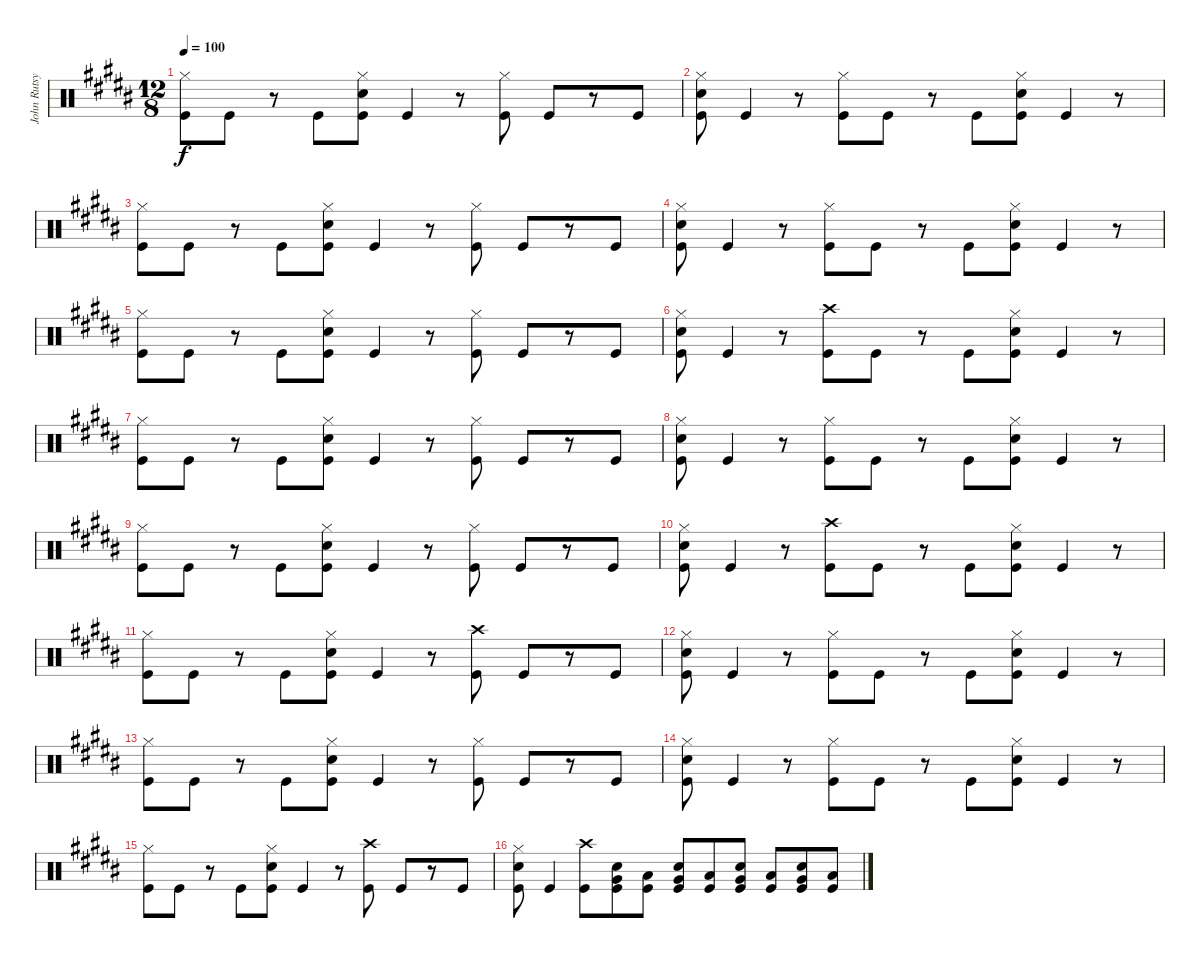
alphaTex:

\track ("John Rutsy Drums" "John Rutsy") {instrument percussion}
\staff {score}
\articulation defaults
\ts (12 8)
\tempo 100
\clef neutral
\ks b
("Hi-Hat (closed)" "Kick (hit)").8{dy f} "Kick (hit)".8 r.8 "Kick (hit)".8 ("Hi-Hat (closed)" "Snare (hit) 2" "Kick (hit)").8 "Kick (hit)".4 r.8 ("Hi-Hat (closed)" "Kick (hit)").8 "Kick (hit)".8 r.8 "Kick (hit)".8 |
("Hi-Hat (closed)" "Snare (hit) 2" "Kick (hit)").8 "Kick (hit)".4 r.8 ("Hi-Hat (closed)" "Kick (hit)").8 "Kick (hit)".8 r.8 "Kick (hit)".8 ("Hi-Hat (closed)" "Snare (hit) 2" "Kick (hit)").8 "Kick (hit)".4 r.8 |
("Hi-Hat (closed)" "Kick (hit)").8 "Kick (hit)".8 r.8 "Kick (hit)".8 ("Hi-Hat (closed)" "Snare (hit) 2" "Kick (hit)").8 "Kick (hit)".4 r.8 ("Hi-Hat (closed)" "Kick (hit)").8 "Kick (hit)".8 r.8 "Kick (hit)".8 |
("Hi-Hat (closed)" "Snare (hit) 2" "Kick (hit)").8 "Kick (hit)".4 r.8 ("Hi-Hat (closed)" "Kick (hit)").8 "Kick (hit)".8 r.8 "Kick (hit)".8 ("Hi-Hat (closed)" "Snare (hit) 2" "Kick (hit)").8 "Kick (hit)".4 r.8 |
("Hi-Hat (closed)" "Kick (hit)").8 "Kick (hit)".8 r.8 "Kick (hit)".8 ("Hi-Hat (closed)" "Snare (hit) 2" "Kick (hit)").8 "Kick (hit)".4 r.8 ("Hi-Hat (closed)" "Kick (hit)").8 "Kick (hit)".8 r.8 "Kick (hit)".8 |
("Hi-Hat (closed)" "Snare (hit) 2" "Kick (hit)").8 "Kick (hit)".4 r.8 ("Crash high (hit)" "Kick (hit)").8 "Kick (hit)".8 r.8 "Kick (hit)".8 ("Hi-Hat (closed)" "Snare (hit) 2" "Kick (hit)").8 "Kick (hit)".4 r.8 |
("Hi-Hat (closed)" "Kick (hit)").8 "Kick (hit)".8 r.8 "Kick (hit)".8 ("Hi-Hat (closed)" "Snare (hit) 2" "Kick (hit)").8 "Kick (hit)".4 r.8 ("Hi-Hat (closed)" "Kick (hit)").8 "Kick (hit)".8 r.8 "Kick (hit)".8 |
("Hi-Hat (closed)" "Snare (hit) 2" "Kick (hit)").8 "Kick (hit)".4 r.8 ("Hi-Hat (closed)" "Kick (hit)").8 "Kick (hit)".8 r.8 "Kick (hit)".8 ("Hi-Hat (closed)" "Snare (hit) 2" "Kick (hit)").8 "Kick (hit)".4 r.8 |
("Hi-Hat (closed)" "Kick (hit)").8 "Kick (hit)".8 r.8 "Kick (hit)".8 ("Hi-Hat (closed)" "Snare (hit) 2" "Kick (hit)").8 "Kick (hit)".4 r.8 ("Hi-Hat (closed)" "Kick (hit)").8 "Kick (hit)".8 r.8 "Kick (hit)".8 |
("Hi-Hat (closed)" "Snare (hit) 2" "Kick (hit)").8 "Kick (hit)".4 r.8 ("Crash high (hit)" "Kick (hit)").8 "Kick (hit)".8 r.8 "Kick (hit)".8 ("Hi-Hat (closed)" "Snare (hit) 2" "Kick (hit)").8 "Kick (hit)".4 r.8 |
("Hi-Hat (closed)" "Kick (hit)").8 "Kick (hit)".8 r.8 "Kick (hit)".8 ("Hi-Hat (closed)" "Snare (hit) 2" "Kick (hit)").8 "Kick (hit)".4 r.8 ("Crash high (hit)" "Kick (hit)").8 "Kick (hit)".8 r.8 "Kick (hit)".8 |
("Hi-Hat (closed)" "Snare (hit) 2" "Kick (hit)").8 "Kick (hit)".4 r.8 ("Hi-Hat (closed)" "Kick (hit)").8 "Kick (hit)".8 r.8 "Kick (hit)".8 ("Hi-Hat (closed)" "Snare (hit) 2" "Kick (hit)").8 "Kick (hit)".4 r.8 |
("Hi-Hat (closed)" "Kick (hit)").8 "Kick (hit)".8 r.8 "Kick (hit)".8 ("Hi-Hat (closed)" "Snare (hit) 2" "Kick (hit)").8 "Kick (hit)".4 r.8 ("Hi-Hat (closed)" "Kick (hit)").8 "Kick (hit)".8 r.8 "Kick (hit)".8 |
("Hi-Hat (closed)" "Snare (hit) 2" "Kick (hit)").8 "Kick (hit)".4 r.8 ("Hi-Hat (closed)" "Kick (hit)").8 "Kick (hit)".8 r.8 "Kick (hit)".8 ("Hi-Hat (closed)" "Snare (hit) 2" "Kick (hit)").8 "Kick (hit)".4 r.8 |
("Hi-Hat (closed)" "Kick (hit)").8 "Kick (hit)".8 r.8 "Kick (hit)".8 ("Hi-Hat (closed)" "Snare (hit) 2" "Kick (hit)").8 "Kick (hit)".4 r.8 ("Crash high (hit)" "Kick (hit)").8 "Kick (hit)".8 r.8 "Kick (hit)".8 |
("Hi-Hat (closed)" "Snare (hit) 2" "Kick (hit)").8 "Kick (hit)".4 ("Crash high (hit)" "Kick (hit)").8 ("Snare (hit) 2" "Very Low Tom (hit)" "Kick (hit)").8 ("Low Tom (hit)" "Kick (hit)").8 ("Snare (hit) 2" "Very Low Tom (hit)" "Kick (hit)").8 ("Low Tom (hit)" "Kick (hit)").8 ("Snare (hit) 2" "Very Low Tom (hit)" "Kick (hit)").8 ("Low Tom (hit)" "Kick (hit)").8 ("Snare (hit) 2" "Very Low Tom (hit)" "Kick (hit)").8 ("Low Tom (hit)" "Kick (hit)").8
